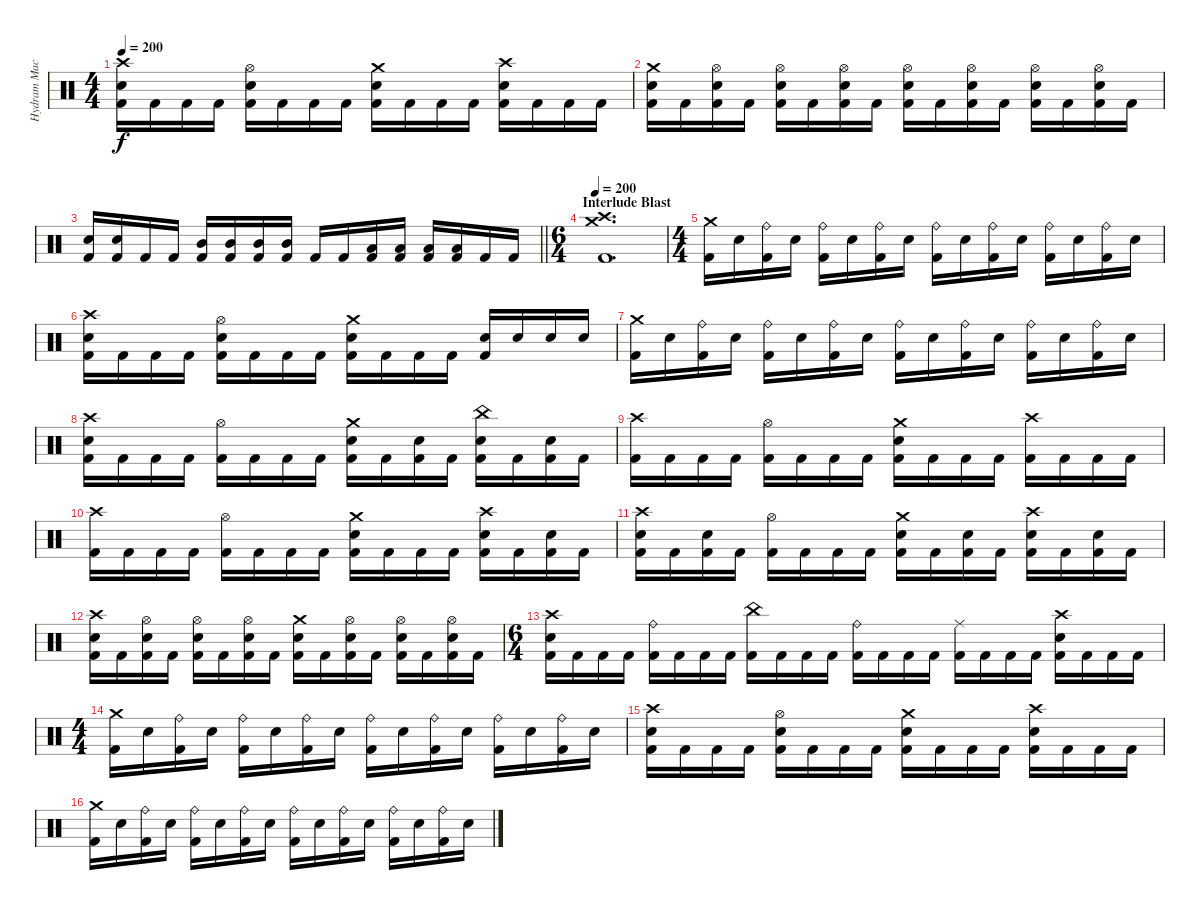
\track ("Hydram Machine" "Hydram Mac") {instrument percussion}
\staff {score}
\articulation defaults
\ts (4 4)
\tempo 200
\clef neutral
\ks c
("Crash high (hit)" "Electric Snare (hit)" "Kick (hit) 2").16{dy f} "Kick (hit) 2".16 "Kick (hit) 2".16 "Kick (hit) 2".16 ("Hi-Hat (open)" "Electric Snare (hit)" "Kick (hit) 2").16 "Kick (hit) 2".16 "Kick (hit) 2".16 "Kick (hit) 2".16 ("Crash medium (hit)" "Electric Snare (hit)" "Kick (hit) 2").16 "Kick (hit) 2".16 "Kick (hit) 2".16 "Kick (hit) 2".16 ("Crash high (hit)" "Electric Snare (hit)" "Kick (hit) 2").16 "Kick (hit) 2".16 "Kick (hit) 2".16 "Kick (hit) 2".16 |
("Crash medium (hit)" "Electric Snare (hit)" "Kick (hit) 2").16 "Kick (hit) 2".16 ("Hi-Hat (open)" "Electric Snare (hit)" "Kick (hit) 2").16 "Kick (hit) 2".16 ("Hi-Hat (open)" "Electric Snare (hit)" "Kick (hit) 2").16 "Kick (hit) 2".16 ("Hi-Hat (open)" "Electric Snare (hit)" "Kick (hit) 2").16 "Kick (hit) 2".16 ("Hi-Hat (open)" "Electric Snare (hit)" "Kick (hit) 2").16 "Kick (hit) 2".16 ("Hi-Hat (open)" "Electric Snare (hit)" "Kick (hit) 2").16 "Kick (hit) 2".16 ("Hi-Hat (open)" "Electric Snare (hit)" "Kick (hit) 2").16 "Kick (hit) 2".16 ("Hi-Hat (open)" "Electric Snare (hit)" "Kick (hit) 2").16 "Kick (hit) 2".16 |
\barLineRight lightlight
("Electric Snare (hit)" "Kick (hit) 2").16 ("Electric Snare (hit)" "Kick (hit) 2").16 "Kick (hit) 2".16 "Kick (hit) 2".16 ("Mid Tom (hit)" "Kick (hit) 2").16 ("Mid Tom (hit)" "Kick (hit) 2").16 ("Mid Tom (hit)" "Kick (hit) 2").16 ("Mid Tom (hit)" "Kick (hit) 2").16 "Kick (hit) 2".16 "Kick (hit) 2".16 ("Low Tom (hit)" "Kick (hit) 2").16 ("Low Tom (hit)" "Kick (hit) 2").16 ("Low Tom (hit)" "Kick (hit) 2").16 ("Low Tom (hit)" "Kick (hit) 2").16 "Kick (hit) 2".16 "Kick (hit) 2".16 |
\ts (6 4)
\section ("" "Interlude Blast")
\tempo 200
("Crash medium (hit)" "Crash high (hit)" "Kick (hit) 2").1{d} |
\ts (4 4)
("Crash medium (hit)" "Kick (hit) 2").16 "Electric Snare (hit)".16 ("Ride (bell)" "Kick (hit) 2").16 "Electric Snare (hit)".16 ("Ride (bell)" "Kick (hit) 2").16 "Electric Snare (hit)".16 ("Ride (bell)" "Kick (hit) 2").16 "Electric Snare (hit)".16 ("Ride (bell)" "Kick (hit) 2").16 "Electric Snare (hit)".16 ("Ride (bell)" "Kick (hit) 2").16 "Electric Snare (hit)".16 ("Ride (bell)" "Kick (hit) 2").16 "Electric Snare (hit)".16 ("Ride (bell)" "Kick (hit) 2").16 "Electric Snare (hit)".16 |
("Crash high (hit)" "Electric Snare (hit)" "Kick (hit) 2").16 "Kick (hit) 2".16 "Kick (hit) 2".16 "Kick (hit) 2".16 ("Hi-Hat (open)" "Electric Snare (hit)" "Kick (hit) 2").16 "Kick (hit) 2".16 "Kick (hit) 2".16 "Kick (hit) 2".16 ("Crash medium (hit)" "Electric Snare (hit)" "Kick (hit) 2").16 "Kick (hit) 2".16 "Kick (hit) 2".16 "Kick (hit) 2".16 ("Electric Snare (hit)" "Kick (hit) 2").16 "Electric Snare (hit)".16 "Electric Snare (hit)".16 "Electric Snare (hit)".16 |
("Crash medium (hit)" "Kick (hit) 2").16 "Electric Snare (hit)".16 ("Ride (bell)" "Kick (hit) 2").16 "Electric Snare (hit)".16 ("Ride (bell)" "Kick (hit) 2").16 "Electric Snare (hit)".16 ("Ride (bell)" "Kick (hit) 2").16 "Electric Snare (hit)".16 ("Ride (bell)" "Kick (hit) 2").16 "Electric Snare (hit)".16 ("Ride (bell)" "Kick (hit) 2").16 "Electric Snare (hit)".16 ("Ride (bell)" "Kick (hit) 2").16 "Electric Snare (hit)".16 ("Ride (bell)" "Kick (hit) 2").16 "Electric Snare (hit)".16 |
("Crash high (hit)" "Electric Snare (hit)" "Kick (hit) 2").16 "Kick (hit) 2".16 "Kick (hit) 2".16 "Kick (hit) 2".16 ("Hi-Hat (open)" "Kick (hit) 2").16 "Kick (hit) 2".16 "Kick (hit) 2".16 "Kick (hit) 2".16 ("Crash medium (hit)" "Electric Snare (hit)" "Kick (hit) 2").16 "Kick (hit) 2".16 ("Electric Snare (hit)" "Kick (hit) 2").16 "Kick (hit) 2".16 ("China (hit)" "Electric Snare (hit)" "Kick (hit) 2").16 "Kick (hit) 2".16 ("Electric Snare (hit)" "Kick (hit) 2").16 "Kick (hit) 2".16 |
("Crash high (hit)" "Kick (hit) 2").16 "Kick (hit) 2".16 "Kick (hit) 2".16 "Kick (hit) 2".16 ("Hi-Hat (open)" "Kick (hit) 2").16 "Kick (hit) 2".16 "Kick (hit) 2".16 "Kick (hit) 2".16 ("Crash medium (hit)" "Electric Snare (hit)" "Kick (hit) 2").16 "Kick (hit) 2".16 "Kick (hit) 2".16 "Kick (hit) 2".16 ("Crash high (hit)" "Kick (hit) 2").16 "Kick (hit) 2".16 "Kick (hit) 2".16 "Kick (hit) 2".16 |
("Crash high (hit)" "Kick (hit) 2").16 "Kick (hit) 2".16 "Kick (hit) 2".16 "Kick (hit) 2".16 ("Hi-Hat (open)" "Kick (hit) 2").16 "Kick (hit) 2".16 "Kick (hit) 2".16 "Kick (hit) 2".16 ("Crash medium (hit)" "Electric Snare (hit)" "Kick (hit) 2").16 "Kick (hit) 2".16 "Kick (hit) 2".16 "Kick (hit) 2".16 ("Crash high (hit)" "Electric Snare (hit)" "Kick (hit) 2").16 "Kick (hit) 2".16 ("Electric Snare (hit)" "Kick (hit) 2").16 "Kick (hit) 2".16 |
("Crash high (hit)" "Electric Snare (hit)" "Kick (hit) 2").16 "Kick (hit) 2".16 ("Electric Snare (hit)" "Kick (hit) 2").16 "Kick (hit) 2".16 ("Hi-Hat (open)" "Kick (hit) 2").16 "Kick (hit) 2".16 "Kick (hit) 2".16 "Kick (hit) 2".16 ("Crash medium (hit)" "Electric Snare (hit)" "Kick (hit) 2").16 "Kick (hit) 2".16 ("Electric Snare (hit)" "Kick (hit) 2").16 "Kick (hit) 2".16 ("Crash high (hit)" "Electric Snare (hit)" "Kick (hit) 2").16 "Kick (hit) 2".16 ("Electric Snare (hit)" "Kick (hit) 2").16 "Kick (hit) 2".16 |
("Crash high (hit)" "Electric Snare (hit)" "Kick (hit) 2").16 "Kick (hit) 2".16 ("Hi-Hat (open)" "Electric Snare (hit)" "Kick (hit) 2").16 "Kick (hit) 2".16 ("Hi-Hat (open)" "Electric Snare (hit)" "Kick (hit) 2").16 "Kick (hit) 2".16 ("Hi-Hat (open)" "Electric Snare (hit)" "Kick (hit) 2").16 "Kick (hit) 2".16 ("Crash medium (hit)" "Electric Snare (hit)" "Kick (hit) 2").16 "Kick (hit) 2".16 ("Hi-Hat (open)" "Electric Snare (hit)" "Kick (hit) 2").16 "Kick (hit) 2".16 ("Hi-Hat (open)" "Electric Snare (hit)" "Kick (hit) 2").16 "Kick (hit) 2".16 ("Hi-Hat (open)" "Electric Snare (hit)" "Kick (hit) 2").16 "Kick (hit) 2".16 |
\ts (6 4)
("Crash high (hit)" "Electric Snare (hit)" "Kick (hit) 2").16 "Kick (hit) 2".16 "Kick (hit) 2".16 "Kick (hit) 2".16 ("Ride (bell)" "Kick (hit) 2").16 "Kick (hit) 2".16 "Kick (hit) 2".16 "Kick (hit) 2".16 ("China (hit)" "Kick (hit) 2").16 "Kick (hit) 2".16 "Kick (hit) 2".16 "Kick (hit) 2".16 ("Ride (bell)" "Kick (hit) 2").16 "Kick (hit) 2".16 "Kick (hit) 2".16 "Kick (hit) 2".16 ("Ride (middle)" "Kick (hit) 2").16 "Kick (hit) 2".16 "Kick (hit) 2".16 "Kick (hit) 2".16 ("Crash high (hit)" "Electric Snare (hit)" "Kick (hit) 2").16 "Kick (hit) 2".16 "Kick (hit) 2".16 "Kick (hit) 2".16 |
\ts (4 4)
("Crash medium (hit)" "Kick (hit) 2").16 "Electric Snare (hit)".16 ("Ride (bell)" "Kick (hit) 2").16 "Electric Snare (hit)".16 ("Ride (bell)" "Kick (hit) 2").16 "Electric Snare (hit)".16 ("Ride (bell)" "Kick (hit) 2").16 "Electric Snare (hit)".16 ("Ride (bell)" "Kick (hit) 2").16 "Electric Snare (hit)".16 ("Ride (bell)" "Kick (hit) 2").16 "Electric Snare (hit)".16 ("Ride (bell)" "Kick (hit) 2").16 "Electric Snare (hit)".16 ("Ride (bell)" "Kick (hit) 2").16 "Electric Snare (hit)".16 |
("Crash high (hit)" "Electric Snare (hit)" "Kick (hit) 2").16 "Kick (hit) 2".16 "Kick (hit) 2".16 "Kick (hit) 2".16 ("Hi-Hat (open)" "Electric Snare (hit)" "Kick (hit) 2").16 "Kick (hit) 2".16 "Kick (hit) 2".16 "Kick (hit) 2".16 ("Crash medium (hit)" "Electric Snare (hit)" "Kick (hit) 2").16 "Kick (hit) 2".16 "Kick (hit) 2".16 "Kick (hit) 2".16 ("Crash high (hit)" "Electric Snare (hit)" "Kick (hit) 2").16 "Kick (hit) 2".16 "Kick (hit) 2".16 "Kick (hit) 2".16 |
("Crash medium (hit)" "Kick (hit) 2").16 "Electric Snare (hit)".16 ("Ride (bell)" "Kick (hit) 2").16 "Electric Snare (hit)".16 ("Ride (bell)" "Kick (hit) 2").16 "Electric Snare (hit)".16 ("Ride (bell)" "Kick (hit) 2").16 "Electric Snare (hit)".16 ("Ride (bell)" "Kick (hit) 2").16 "Electric Snare (hit)".16 ("Ride (bell)" "Kick (hit) 2").16 "Electric Snare (hit)".16 ("Ride (bell)" "Kick (hit) 2").16 "Electric Snare (hit)".16 ("Ride (bell)" "Kick (hit) 2").16 "Electric Snare (hit)".16
